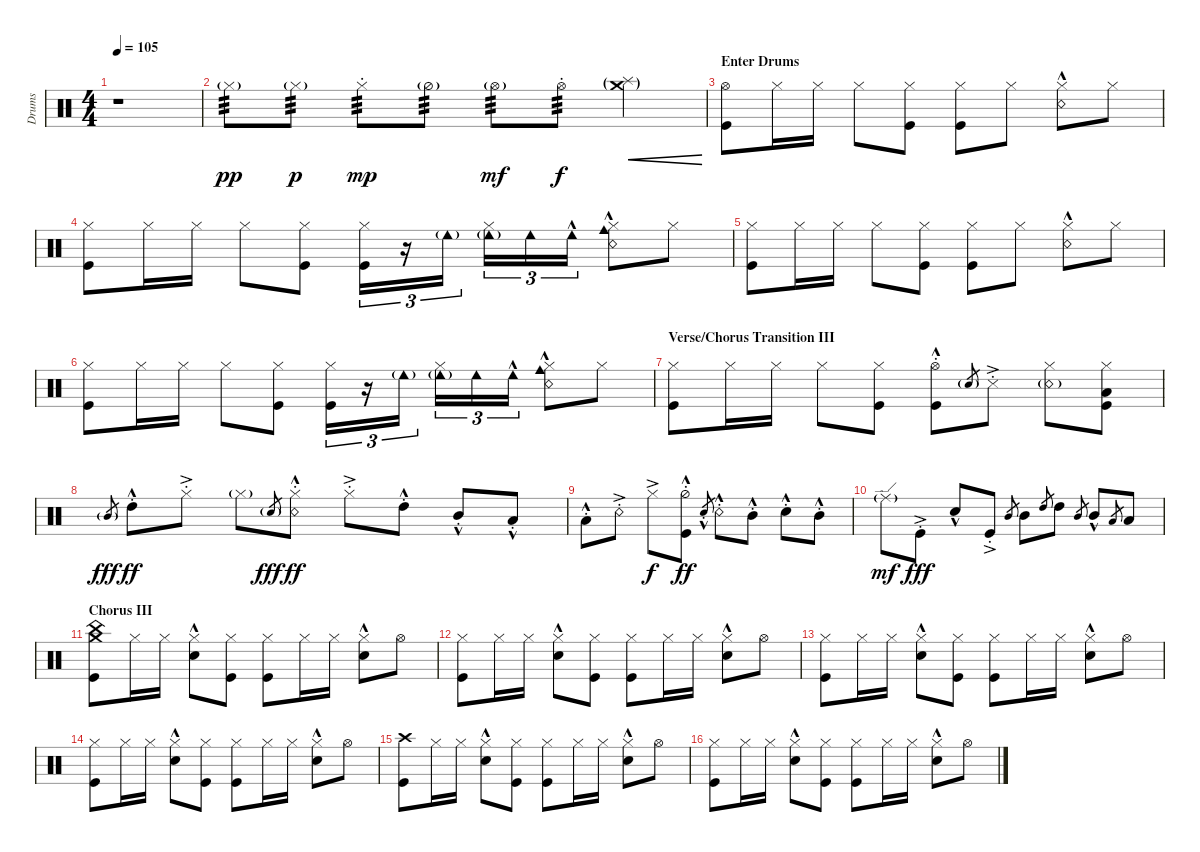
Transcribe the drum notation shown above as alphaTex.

\defaultSystemsLayout 4
\otherSystemsTrackNameOrientation horizontal
\chordDiagramsInScore
\track ("Drumkit" "Drums") {instrument percussion}
\staff {score}
\articulation defaults
\ts (4 4)
\tempo 105
\clef neutral
\scale
0.5
\ks c
r.1{dy mf} |
\scale
0.5 "Hi-Hat (closed)"{g}.8{tp 3 dy pp} "Hi-Hat (closed)"{g}.8{tp 3 dy p} "Hi-Hat (closed)"{st}.8{tp 3 dy mp} "Hi-Hat (half)"{g}.8{tp 3} "Hi-Hat (open)"{g}.8{tp 3 dy mf} "Hi-Hat (open)"{st}.8{tp 3 dy f} ("Splash (hit)"{g} "Crash medium (hit)"{g}).4{cre} |
\section ("" "Enter Drums")
\scale
0.5 ("Kick (hit)" "Hi-Hat (open)").8 "Hi-Hat (closed)".16 "Hi-Hat (closed)".16 "Hi-Hat (closed)".8 ("Kick (hit)" "Hi-Hat (closed)").8 ("Kick (hit)" "Hi-Hat (closed)").8 "Hi-Hat (closed)".8 ("Snare (rim shot)"{hac} "Hi-Hat (closed)").8 "Hi-Hat (closed)".8 |
\scale
0.5 ("Kick (hit)" "Hi-Hat (closed)").8 "Hi-Hat (closed)".16 "Hi-Hat (closed)".16 "Hi-Hat (closed)".8 ("Kick (hit)" "Hi-Hat (closed)").8 ("Kick (hit)" "Hi-Hat (closed)").16{tu (3 2)} r.16{tu (3 2)} "Cowbell low (hit)"{g}.16{tu (3 2)} ("Hi-Hat (closed)" "Cowbell low (hit)"{g}).16{tu (3 2)} "Cowbell low (hit)".16{tu (3 2)} "Cowbell low (hit)"{hac}.16{tu (3 2)} ("Snare (rim shot)"{hac} "Hi-Hat (closed)" "Cowbell medium (hit)"{hac}).8 "Hi-Hat (closed)".8 |
\scale
0.5 ("Kick (hit)" "Hi-Hat (closed)").8 "Hi-Hat (closed)".16 "Hi-Hat (closed)".16 "Hi-Hat (closed)".8 ("Kick (hit)" "Hi-Hat (closed)").8 ("Kick (hit)" "Hi-Hat (closed)").8 "Hi-Hat (closed)".8 ("Snare (rim shot)"{hac} "Hi-Hat (closed)").8 "Hi-Hat (closed)".8 |
\scale
0.5 ("Kick (hit)" "Hi-Hat (closed)").8 "Hi-Hat (closed)".16 "Hi-Hat (closed)".16 "Hi-Hat (closed)".8 ("Kick (hit)" "Hi-Hat (closed)").8 ("Kick (hit)" "Hi-Hat (closed)").16{tu (3 2)} r.16{tu (3 2)} "Cowbell low (hit)"{g}.16{tu (3 2)} ("Hi-Hat (closed)" "Cowbell low (hit)"{g}).16{tu (3 2)} "Cowbell low (hit)".16{tu (3 2)} "Cowbell low (hit)"{hac}.16{tu (3 2)} ("Snare (rim shot)"{hac} "Hi-Hat (closed)" "Cowbell medium (hit)"{hac}).8 "Hi-Hat (closed)".8 |
\section ("" "Verse/Chorus Transition III")
\scale
0.5 ("Kick (hit)" "Hi-Hat (closed)").8 "Hi-Hat (closed)".16 "Hi-Hat (closed)".16 "Hi-Hat (closed)".8 ("Kick (hit)" "Hi-Hat (closed)").8 ("Kick (hit)" "Hi-Hat (open)"{hac st}).8 "Snare (hit) 2"{g}.8{gr} "Snare (side stick) 3"{ac st}.8 ("Hi-Hat (closed)" "Snare (rim shot)"{g}).8 ("Hi-Hat (closed)" "Kick (hit)" "Low Tom (hit)").8 |
\scale
0.5 "Mid Tom (hit)"{g}.8{gr dy fff} "High Tom (hit)"{hac st}.8{dy ff} "Hi-Hat (closed)"{ac st}.8 "Hi-Hat (closed)"{g}.8 "Snare (hit) 2"{g}.8{gr dy fff} ("Snare (rim shot)"{hac st} "Hi-Hat (closed)"{hac}).8{dy ff} "Hi-Hat (closed)"{ac st}.8 "High Tom (hit)"{hac st}.8 "Mid Tom (hit)"{hac st}.8 "Low Tom (hit)"{hac st}.8 |
\scale
0.5 "Low Tom (hit)"{hac st}.8 "Snare (rim shot)"{ac st}.8 "Hi-Hat (closed)"{ac}.8{dy f} ("Kick (hit)" "Hi-Hat (half)"{hac st}).8{dy ff} "Snare (hit) 2"{hac st}.8{gr} "Snare (rim shot)"{hac st}.8 "Mid Tom (hit)"{hac st}.8 "Snare (hit) 2"{hac st}.8 "Mid Tom (hit)"{hac st}.8 |
\scale
0.5 "Ride (edge)"{g}.8{dy mf} "Kick (hit)"{ac st}.8{dy fff} "Snare (hit) 2"{hac}.8 "Kick (hit)"{ac st}.8 "Mid Tom (hit)".8{gr} "Mid Tom (hit)".8 "High Tom (hit)".8{gr} "High Tom (hit)".8 "Mid Tom (hit)".8{gr} "Mid Tom (hit)"{hac}.8 "Low Tom (hit)".8{gr} "Low Tom (hit)".8 |
\section ("" "Chorus III")
\scale
0.5 ("Kick (hit)" "Crash medium (hit)" "China (hit)").8 "Hi-Hat (closed)".16 "Hi-Hat (closed)".16 ("Hi-Hat (closed)" "Snare (hit) 2"{hac}).8 ("Kick (hit)" "Hi-Hat (closed)").8 ("Kick (hit)" "Hi-Hat (closed)").8 "Hi-Hat (closed)".16 "Hi-Hat (closed)".16 ("Snare (hit) 2"{hac} "Hi-Hat (closed)").8 "Hi-Hat (open)".8 |
\scale
0.5 ("Kick (hit)" "Hi-Hat (closed)").8 "Hi-Hat (closed)".16 "Hi-Hat (closed)".16 ("Hi-Hat (closed)" "Snare (hit) 2"{hac}).8 ("Kick (hit)" "Hi-Hat (closed)").8 ("Kick (hit)" "Hi-Hat (closed)").8 "Hi-Hat (closed)".16 "Hi-Hat (closed)".16 ("Snare (hit) 2"{hac} "Hi-Hat (closed)").8 "Hi-Hat (open)".8 |
\scale
0.5 ("Kick (hit)" "Hi-Hat (closed)").8 "Hi-Hat (closed)".16 "Hi-Hat (closed)".16 ("Hi-Hat (closed)" "Snare (hit) 2"{hac}).8 ("Kick (hit)" "Hi-Hat (closed)").8 ("Kick (hit)" "Hi-Hat (closed)").8 "Hi-Hat (closed)".16 "Hi-Hat (closed)".16 ("Snare (hit) 2"{hac} "Hi-Hat (closed)").8 "Hi-Hat (open)".8 |
\scale
0.5 ("Kick (hit)" "Hi-Hat (closed)").8 "Hi-Hat (closed)".16 "Hi-Hat (closed)".16 ("Hi-Hat (closed)" "Snare (hit) 2"{hac}).8 ("Kick (hit)" "Hi-Hat (closed)").8 ("Kick (hit)" "Hi-Hat (closed)").8 "Hi-Hat (closed)".16 "Hi-Hat (closed)".16 ("Snare (hit) 2"{hac} "Hi-Hat (closed)").8 "Hi-Hat (open)".8 |
\scale
0.5 ("Kick (hit)" "Crash high (hit)").8 "Hi-Hat (closed)".16 "Hi-Hat (closed)".16 ("Hi-Hat (closed)" "Snare (hit) 2"{hac}).8 ("Kick (hit)" "Hi-Hat (closed)").8 ("Kick (hit)" "Hi-Hat (closed)").8 "Hi-Hat (closed)".16 "Hi-Hat (closed)".16 ("Snare (hit) 2"{hac} "Hi-Hat (closed)").8 "Hi-Hat (open)".8 |
\scale
0.5 ("Kick (hit)" "Hi-Hat (closed)").8 "Hi-Hat (closed)".16 "Hi-Hat (closed)".16 ("Hi-Hat (closed)" "Snare (hit) 2"{hac}).8 ("Kick (hit)" "Hi-Hat (closed)").8 ("Kick (hit)" "Hi-Hat (closed)").8 "Hi-Hat (closed)".16 "Hi-Hat (closed)".16 ("Snare (hit) 2"{hac} "Hi-Hat (closed)").8 "Hi-Hat (open)".8
